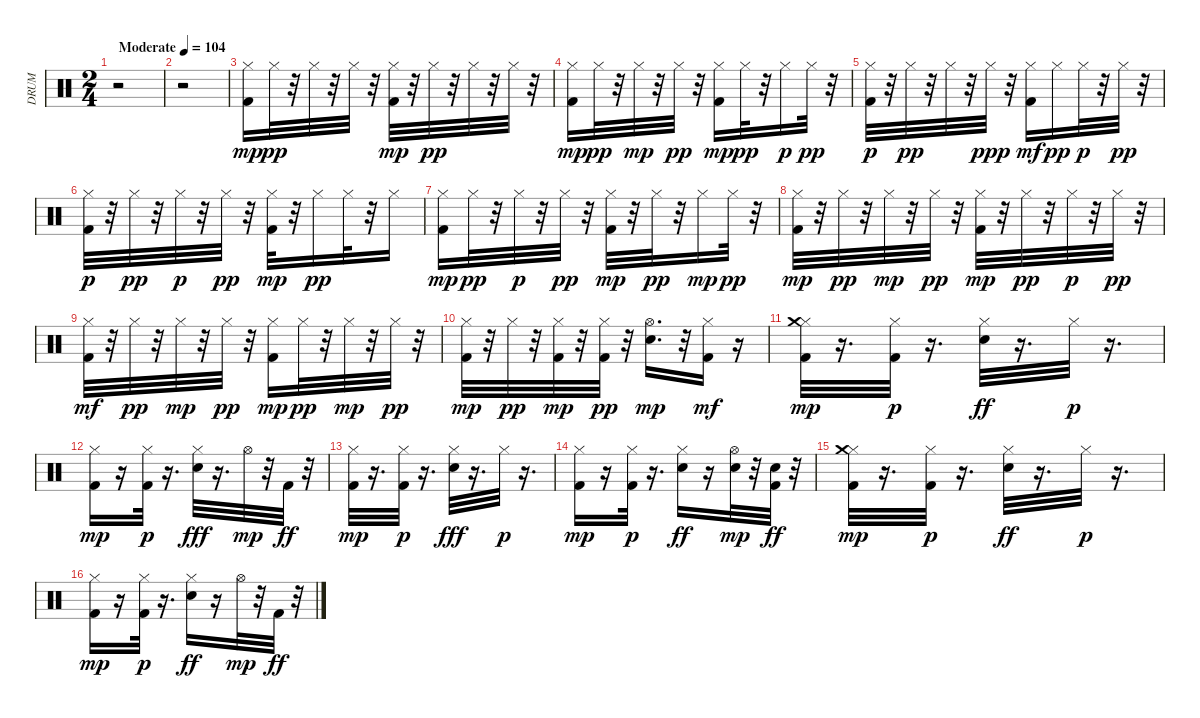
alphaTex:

\track ("DRUM    " "DRUM    ") {instrument percussion}
\staff {score}
\articulation defaults
\ts (2 4)
\tempo (104 "Moderate")
\clef neutral
\ks c
r.2{dy mp} |
r.2 |
("Kick (hit) 2" "Hi-Hat (closed)").16 "Hi-Hat (closed)".32{dy pp} r.32 "Hi-Hat (closed)".32 r.32 "Hi-Hat (closed)".32 r.32 ("Kick (hit) 2" "Hi-Hat (closed)").32{dy mp} r.32 "Hi-Hat (closed)".32{dy pp} r.32 "Hi-Hat (closed)".32 r.32 "Hi-Hat (closed)".32 r.32 |
("Kick (hit) 2" "Hi-Hat (closed)").16{dy mp} "Hi-Hat (closed)".32{dy pp} r.32 "Hi-Hat (closed)".32{dy mp} r.32 "Hi-Hat (closed)".32{dy pp} r.32 ("Kick (hit) 2" "Hi-Hat (closed)").16{dy mp} "Hi-Hat (closed)".32{dy pp} r.32 "Hi-Hat (closed)".16{dy p} "Hi-Hat (closed)".32{dy pp} r.32 |
("Kick (hit) 2" "Hi-Hat (closed)").32{dy p} r.32 "Hi-Hat (closed)".32{dy pp} r.32 "Hi-Hat (closed)".32 r.32 "Hi-Hat (closed)".32{dy ppp} r.32 ("Kick (hit) 2" "Hi-Hat (closed)").16{dy mf} "Hi-Hat (closed)".16{dy pp} "Hi-Hat (closed)".32{dy p} r.32 "Hi-Hat (closed)".32{dy pp} r.32 |
("Kick (hit) 2" "Hi-Hat (closed)").32{dy p} r.32 "Hi-Hat (closed)".32{dy pp} r.32 "Hi-Hat (closed)".32{dy p} r.32 "Hi-Hat (closed)".32{dy pp} r.32 ("Kick (hit) 2" "Hi-Hat (closed)").32{dy mp} r.32 "Hi-Hat (closed)".16{dy pp} "Hi-Hat (closed)".32 r.32 "Hi-Hat (closed)".16 |
("Kick (hit) 2" "Hi-Hat (closed)").16{dy mp} "Hi-Hat (closed)".32{dy pp} r.32 "Hi-Hat (closed)".32{dy p} r.32 "Hi-Hat (closed)".32{dy pp} r.32 ("Kick (hit) 2" "Hi-Hat (closed)").32{dy mp} r.32 "Hi-Hat (closed)".32{dy pp} r.32 "Hi-Hat (closed)".16{dy mp} "Hi-Hat (closed)".32{dy pp} r.32 |
("Kick (hit) 2" "Hi-Hat (closed)").32{dy mp} r.32 "Hi-Hat (closed)".32{dy pp} r.32 "Hi-Hat (closed)".32{dy mp} r.32 "Hi-Hat (closed)".32{dy pp} r.32 ("Kick (hit) 2" "Hi-Hat (closed)").32{dy mp} r.32 "Hi-Hat (closed)".32{dy pp} r.32 "Hi-Hat (closed)".32{dy p} r.32 "Hi-Hat (closed)".32{dy pp} r.32 |
("Kick (hit) 2" "Hi-Hat (closed)").32{dy mf} r.32 "Hi-Hat (closed)".32{dy pp} r.32 "Hi-Hat (closed)".32{dy mp} r.32 "Hi-Hat (closed)".32{dy pp} r.32 ("Kick (hit) 2" "Hi-Hat (closed)").16{dy mp} "Hi-Hat (closed)".32{dy pp} r.32 "Hi-Hat (closed)".32{dy mp} r.32 "Hi-Hat (closed)".32{dy pp} r.32 |
("Kick (hit) 2" "Hi-Hat (closed)").32{dy mp} r.32 "Hi-Hat (closed)".32{dy pp} r.32 ("Kick (hit) 2" "Hi-Hat (closed)").32{dy mp} r.32 ("Kick (hit) 2" "Hi-Hat (closed)").32{dy pp} r.32 ("Snare (hit) 2" "Hi-Hat (open)").16{d dy mp} r.32 ("Kick (hit) 2" "Hi-Hat (closed)").16{dy mf} r.16 |
("Kick (hit) 2" "Hi-Hat (closed)" "Crash medium (hit)").32{dy mp} r.16{d} ("Kick (hit) 2" "Hi-Hat (closed)").32{dy p} r.16{d} ("Hi-Hat (closed)" "Snare (hit) 2").32{dy ff} r.16{d} "Hi-Hat (closed)".32{dy p} r.16{d} |
("Kick (hit) 2" "Hi-Hat (closed)").16{dy mp} r.16 ("Kick (hit) 2" "Hi-Hat (closed)").32{dy p} r.16{d} ("Hi-Hat (closed)" "Snare (hit) 2").32{dy fff} r.16{d} "Hi-Hat (open)".32{dy mp} r.32 "Kick (hit) 2".32{dy ff} r.32 |
("Kick (hit) 2" "Hi-Hat (closed)").32{dy mp} r.16{d} ("Kick (hit) 2" "Hi-Hat (closed)").32{dy p} r.16{d} ("Hi-Hat (closed)" "Snare (hit) 2").32{dy fff} r.16{d} "Hi-Hat (closed)".32{dy p} r.16{d} |
("Kick (hit) 2" "Hi-Hat (closed)").16{dy mp} r.16 ("Kick (hit) 2" "Hi-Hat (closed)").32{dy p} r.16{d} ("Hi-Hat (closed)" "Snare (hit) 2").16{dy ff} r.16 ("Hi-Hat (open)" "Snare (hit) 2").32{dy mp} r.32 ("Kick (hit) 2" "Snare (hit) 2").32{dy ff} r.32 |
("Kick (hit) 2" "Hi-Hat (closed)" "Crash medium (hit)").32{dy mp} r.16{d} ("Kick (hit) 2" "Hi-Hat (closed)").32{dy p} r.16{d} ("Hi-Hat (closed)" "Snare (hit) 2").32{dy ff} r.16{d} "Hi-Hat (closed)".32{dy p} r.16{d} |
("Kick (hit) 2" "Hi-Hat (closed)").16{dy mp} r.16 ("Kick (hit) 2" "Hi-Hat (closed)").32{dy p} r.16{d} ("Hi-Hat (closed)" "Snare (hit) 2").16{dy ff} r.16 "Hi-Hat (open)".32{dy mp} r.32 "Kick (hit) 2".32{dy ff} r.32
